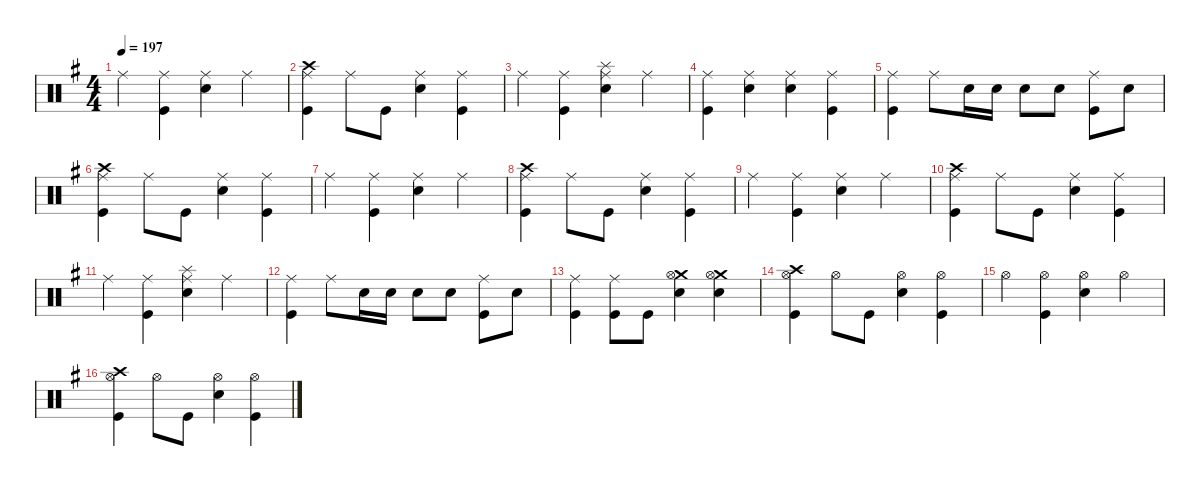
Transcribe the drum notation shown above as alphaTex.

\defaultSystemsLayout 4
\hideDynamics
\bracketExtendMode nobrackets
\singleTrackTrackNamePolicy hidden
\multiTrackTrackNamePolicy hidden
\firstSystemTrackNameMode fullname
\firstSystemTrackNameOrientation horizontal
\otherSystemsTrackNameOrientation horizontal
\track ("Drums" "drm.") {defaultSystemsLayout 4 instrument percussion}
\staff {score}
\articulation defaults
\ts (4 4)
\tempo 197
\clef neutral
\ks eminor "Ride (middle)"{acc forcenatural}.4{dy f beam Down}
("Ride (middle)"{acc forcenatural} "Kick (hit)"{acc forcenatural}).4{beam Down} ("Ride (middle)"{acc forcenatural} "Snare (hit) 2"{acc forcenatural}).4{beam Down} "Ride (middle)"{acc forcenatural}.4{beam Down} |
("Crash high (hit)"{acc forcenatural} "Ride (middle)"{acc forcenatural} "Kick (hit)"{acc forcenatural}).4{beam Down} "Ride (middle)"{acc forcenatural}.8{beam Down} "Kick (hit)"{acc forcenatural}.8{beam Down} ("Ride (middle)"{acc forcenatural} "Snare (hit) 2"{acc forcenatural}).4{beam Down} ("Ride (middle)"{acc forcenatural} "Kick (hit)"{acc forcenatural}).4{beam Down} |
"Ride (middle)"{acc forcenatural}.4{beam Down} ("Ride (middle)"{acc forcenatural} "Kick (hit)"{acc forcenatural}).4{beam Down} ("Splash (hit)"{acc forcenatural} "Ride (middle)"{acc forcenatural} "Snare (hit) 2"{acc forcenatural}).4{beam Down} "Ride (middle)"{acc forcenatural}.4{beam Down} |
("Ride (middle)"{acc forcenatural} "Kick (hit)"{acc forcenatural}).4{beam Down} ("Ride (middle)"{acc forcenatural} "Snare (hit) 2"{acc forcenatural}).4{beam Down} ("Ride (middle)"{acc forcenatural} "Snare (hit) 2"{acc forcenatural}).4{beam Down} ("Ride (middle)"{acc forcenatural} "Kick (hit)"{acc forcenatural}).4{beam Down} |
("Ride (middle)"{acc forcenatural} "Kick (hit)"{acc forcenatural}).4{beam Down} "Ride (middle)"{acc forcenatural}.8{beam Down} "Snare (hit) 2"{acc forcenatural}.16{dy mf beam Down} "Snare (hit) 2"{acc forcenatural}.16{beam Down} "Snare (hit) 2"{acc forcenatural}.8{dy f beam Down} "Snare (hit) 2"{acc forcenatural}.8{beam Down} ("Ride (middle)"{acc forcenatural} "Kick (hit)"{acc forcenatural}).8{beam Down} "Snare (hit) 2"{acc forcenatural}.8{beam Down} |
("Crash high (hit)"{acc forcenatural} "Ride (middle)"{acc forcenatural} "Kick (hit)"{acc forcenatural}).4{beam Down} "Ride (middle)"{acc forcenatural}.8{beam Down} "Kick (hit)"{acc forcenatural}.8{beam Down} ("Ride (middle)"{acc forcenatural} "Snare (hit) 2"{acc forcenatural}).4{beam Down} ("Ride (middle)"{acc forcenatural} "Kick (hit)"{acc forcenatural}).4{beam Down} |
"Ride (middle)"{acc forcenatural}.4{beam Down} ("Ride (middle)"{acc forcenatural} "Kick (hit)"{acc forcenatural}).4{beam Down} ("Ride (middle)"{acc forcenatural} "Snare (hit) 2"{acc forcenatural}).4{beam Down} "Ride (middle)"{acc forcenatural}.4{beam Down} |
("Crash high (hit)"{acc forcenatural} "Ride (middle)"{acc forcenatural} "Kick (hit)"{acc forcenatural}).4{beam Down} "Ride (middle)"{acc forcenatural}.8{beam Down} "Kick (hit)"{acc forcenatural}.8{beam Down} ("Ride (middle)"{acc forcenatural} "Snare (hit) 2"{acc forcenatural}).4{beam Down} ("Ride (middle)"{acc forcenatural} "Kick (hit)"{acc forcenatural}).4{beam Down} |
"Ride (middle)"{acc forcenatural}.4{beam Down} ("Ride (middle)"{acc forcenatural} "Kick (hit)"{acc forcenatural}).4{beam Down} ("Ride (middle)"{acc forcenatural} "Snare (hit) 2"{acc forcenatural}).4{beam Down} "Ride (middle)"{acc forcenatural}.4{beam Down} |
("Crash high (hit)"{acc forcenatural} "Ride (middle)"{acc forcenatural} "Kick (hit)"{acc forcenatural}).4{beam Down} "Ride (middle)"{acc forcenatural}.8{beam Down} "Kick (hit)"{acc forcenatural}.8{beam Down} ("Ride (middle)"{acc forcenatural} "Snare (hit) 2"{acc forcenatural}).4{beam Down} ("Ride (middle)"{acc forcenatural} "Kick (hit)"{acc forcenatural}).4{beam Down} |
"Ride (middle)"{acc forcenatural}.4{beam Down} ("Ride (middle)"{acc forcenatural} "Kick (hit)"{acc forcenatural}).4{beam Down} ("Splash (hit)"{acc forcenatural} "Ride (middle)"{acc forcenatural} "Snare (hit) 2"{acc forcenatural}).4{beam Down} "Ride (middle)"{acc forcenatural}.4{beam Down} |
("Ride (middle)"{acc forcenatural} "Kick (hit)"{acc forcenatural}).4{beam Down} "Ride (middle)"{acc forcenatural}.8{beam Down} "Snare (hit) 2"{acc forcenatural}.16{dy mf beam Down} "Snare (hit) 2"{acc forcenatural}.16{beam Down} "Snare (hit) 2"{acc forcenatural}.8{dy f beam Down} "Snare (hit) 2"{acc forcenatural}.8{beam Down} ("Ride (middle)"{acc forcenatural} "Kick (hit)"{acc forcenatural}).8{beam Down} "Snare (hit) 2"{acc forcenatural}.8{beam Down} |
("Ride (middle)"{acc forcenatural} "Kick (hit)"{acc forcenatural}).4{beam Down} ("Ride (middle)"{acc forcenatural} "Kick (hit)"{acc forcenatural}).8{beam Down} "Kick (hit)"{acc forcenatural}.8{beam Down} ("Crash medium (hit)"{acc forcenatural} "Hi-Hat (open)"{acc forcenatural} "Snare (hit) 2"{acc forcenatural}).4{beam Down} ("Crash medium (hit)"{acc forcenatural} "Hi-Hat (open)"{acc forcenatural} "Snare (hit) 2"{acc forcenatural}).4{beam Down} |
("Crash high (hit)"{acc forcenatural} "Hi-Hat (open)"{acc forcenatural} "Kick (hit)"{acc forcenatural}).4{beam Down} "Hi-Hat (open)"{acc forcenatural}.8{beam Down} "Kick (hit)"{acc forcenatural}.8{beam Down} ("Hi-Hat (open)"{acc forcenatural} "Snare (hit) 2"{acc forcenatural}).4{beam Down} ("Hi-Hat (open)"{acc forcenatural} "Kick (hit)"{acc forcenatural}).4{beam Down} |
"Hi-Hat (open)"{acc forcenatural}.4{beam Down} ("Hi-Hat (open)"{acc forcenatural} "Kick (hit)"{acc forcenatural}).4{beam Down} ("Hi-Hat (open)"{acc forcenatural} "Snare (hit) 2"{acc forcenatural}).4{beam Down} "Hi-Hat (open)"{acc forcenatural}.4{beam Down} |
("Crash high (hit)"{acc forcenatural} "Hi-Hat (open)"{acc forcenatural} "Kick (hit)"{acc forcenatural}).4{beam Down} "Hi-Hat (open)"{acc forcenatural}.8{beam Down} "Kick (hit)"{acc forcenatural}.8{beam Down} ("Hi-Hat (open)"{acc forcenatural} "Snare (hit) 2"{acc forcenatural}).4{beam Down} ("Hi-Hat (open)"{acc forcenatural} "Kick (hit)"{acc forcenatural}).4{beam Down}
